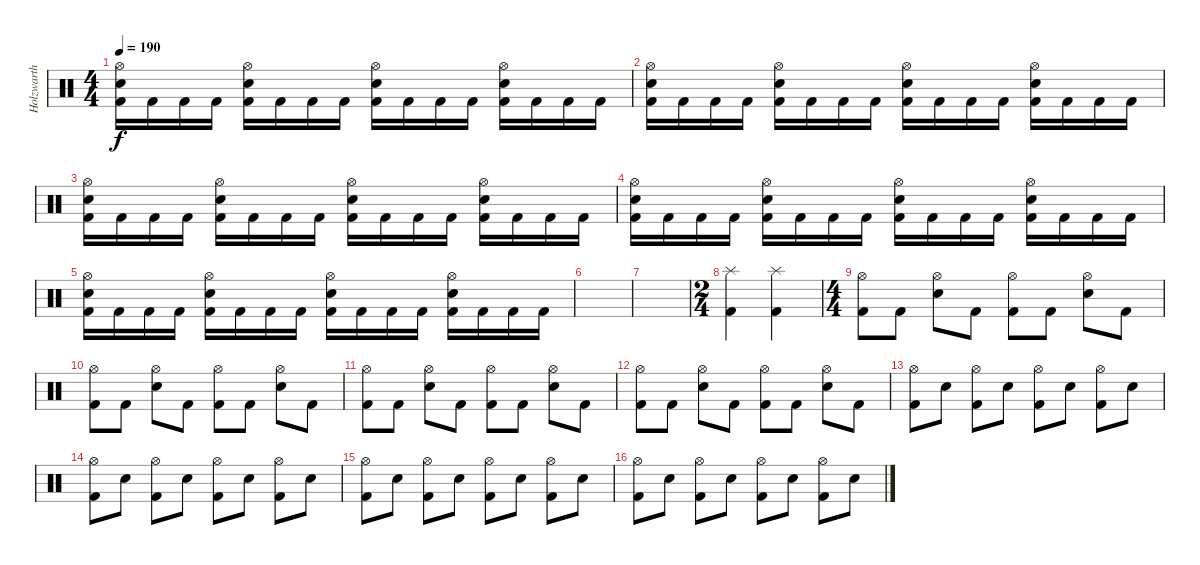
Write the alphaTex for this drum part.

\track ("Holzwarth" "Holzwarth") {instrument percussion}
\staff {score}
\articulation defaults
\ts (4 4)
\tempo 190
\clef neutral
\ks c
("Hi-Hat (open)" "Snare (hit) 2" "Kick (hit) 2").16{dy f} "Kick (hit) 2".16 "Kick (hit) 2".16 "Kick (hit) 2".16 ("Hi-Hat (open)" "Snare (hit) 2" "Kick (hit) 2").16 "Kick (hit) 2".16 "Kick (hit) 2".16 "Kick (hit) 2".16 ("Hi-Hat (open)" "Snare (hit) 2" "Kick (hit) 2").16 "Kick (hit) 2".16 "Kick (hit) 2".16 "Kick (hit) 2".16 ("Hi-Hat (open)" "Snare (hit) 2" "Kick (hit) 2").16 "Kick (hit) 2".16 "Kick (hit) 2".16 "Kick (hit) 2".16 |
("Hi-Hat (open)" "Snare (hit) 2" "Kick (hit) 2").16 "Kick (hit) 2".16 "Kick (hit) 2".16 "Kick (hit) 2".16 ("Hi-Hat (open)" "Snare (hit) 2" "Kick (hit) 2").16 "Kick (hit) 2".16 "Kick (hit) 2".16 "Kick (hit) 2".16 ("Hi-Hat (open)" "Snare (hit) 2" "Kick (hit) 2").16 "Kick (hit) 2".16 "Kick (hit) 2".16 "Kick (hit) 2".16 ("Hi-Hat (open)" "Snare (hit) 2" "Kick (hit) 2").16 "Kick (hit) 2".16 "Kick (hit) 2".16 "Kick (hit) 2".16 |
("Hi-Hat (open)" "Snare (hit) 2" "Kick (hit) 2").16 "Kick (hit) 2".16 "Kick (hit) 2".16 "Kick (hit) 2".16 ("Hi-Hat (open)" "Snare (hit) 2" "Kick (hit) 2").16 "Kick (hit) 2".16 "Kick (hit) 2".16 "Kick (hit) 2".16 ("Hi-Hat (open)" "Snare (hit) 2" "Kick (hit) 2").16 "Kick (hit) 2".16 "Kick (hit) 2".16 "Kick (hit) 2".16 ("Hi-Hat (open)" "Snare (hit) 2" "Kick (hit) 2").16 "Kick (hit) 2".16 "Kick (hit) 2".16 "Kick (hit) 2".16 |
("Hi-Hat (open)" "Snare (hit) 2" "Kick (hit) 2").16 "Kick (hit) 2".16 "Kick (hit) 2".16 "Kick (hit) 2".16 ("Hi-Hat (open)" "Snare (hit) 2" "Kick (hit) 2").16 "Kick (hit) 2".16 "Kick (hit) 2".16 "Kick (hit) 2".16 ("Hi-Hat (open)" "Snare (hit) 2" "Kick (hit) 2").16 "Kick (hit) 2".16 "Kick (hit) 2".16 "Kick (hit) 2".16 ("Hi-Hat (open)" "Snare (hit) 2" "Kick (hit) 2").16 "Kick (hit) 2".16 "Kick (hit) 2".16 "Kick (hit) 2".16 |
("Hi-Hat (open)" "Snare (hit) 2" "Kick (hit) 2").16 "Kick (hit) 2".16 "Kick (hit) 2".16 "Kick (hit) 2".16 ("Hi-Hat (open)" "Snare (hit) 2" "Kick (hit) 2").16 "Kick (hit) 2".16 "Kick (hit) 2".16 "Kick (hit) 2".16 ("Hi-Hat (open)" "Snare (hit) 2" "Kick (hit) 2").16 "Kick (hit) 2".16 "Kick (hit) 2".16 "Kick (hit) 2".16 ("Hi-Hat (open)" "Snare (hit) 2" "Kick (hit) 2").16 "Kick (hit) 2".16 "Kick (hit) 2".16 "Kick (hit) 2".16 |
|
|
\ts (2 4)
("Splash (hit)" "Kick (hit) 2").4 ("Splash (hit)" "Kick (hit) 2").4 |
\ts (4 4)
("Hi-Hat (open)" "Kick (hit) 2").8 "Kick (hit) 2".8 ("Hi-Hat (open)" "Snare (hit) 2").8 "Kick (hit) 2".8 ("Hi-Hat (open)" "Kick (hit) 2").8 "Kick (hit) 2".8 ("Hi-Hat (open)" "Snare (hit) 2").8 "Kick (hit) 2".8 |
("Hi-Hat (open)" "Kick (hit) 2").8 "Kick (hit) 2".8 ("Hi-Hat (open)" "Snare (hit) 2").8 "Kick (hit) 2".8 ("Hi-Hat (open)" "Kick (hit) 2").8 "Kick (hit) 2".8 ("Hi-Hat (open)" "Snare (hit) 2").8 "Kick (hit) 2".8 |
("Hi-Hat (open)" "Kick (hit) 2").8 "Kick (hit) 2".8 ("Hi-Hat (open)" "Snare (hit) 2").8 "Kick (hit) 2".8 ("Hi-Hat (open)" "Kick (hit) 2").8 "Kick (hit) 2".8 ("Hi-Hat (open)" "Snare (hit) 2").8 "Kick (hit) 2".8 |
("Hi-Hat (open)" "Kick (hit) 2").8 "Kick (hit) 2".8 ("Hi-Hat (open)" "Snare (hit) 2").8 "Kick (hit) 2".8 ("Hi-Hat (open)" "Kick (hit) 2").8 "Kick (hit) 2".8 ("Hi-Hat (open)" "Snare (hit) 2").8 "Kick (hit) 2".8 |
("Hi-Hat (open)" "Kick (hit) 2").8 "Snare (hit) 2".8 ("Hi-Hat (open)" "Kick (hit) 2").8 "Snare (hit) 2".8 ("Hi-Hat (open)" "Kick (hit) 2").8 "Snare (hit) 2".8 ("Hi-Hat (open)" "Kick (hit) 2").8 "Snare (hit) 2".8 |
("Hi-Hat (open)" "Kick (hit) 2").8 "Snare (hit) 2".8 ("Hi-Hat (open)" "Kick (hit) 2").8 "Snare (hit) 2".8 ("Hi-Hat (open)" "Kick (hit) 2").8 "Snare (hit) 2".8 ("Hi-Hat (open)" "Kick (hit) 2").8 "Snare (hit) 2".8 |
("Hi-Hat (open)" "Kick (hit) 2").8 "Snare (hit) 2".8 ("Hi-Hat (open)" "Kick (hit) 2").8 "Snare (hit) 2".8 ("Hi-Hat (open)" "Kick (hit) 2").8 "Snare (hit) 2".8 ("Hi-Hat (open)" "Kick (hit) 2").8 "Snare (hit) 2".8 |
("Hi-Hat (open)" "Kick (hit) 2").8 "Snare (hit) 2".8 ("Hi-Hat (open)" "Kick (hit) 2").8 "Snare (hit) 2".8 ("Hi-Hat (open)" "Kick (hit) 2").8 "Snare (hit) 2".8 ("Hi-Hat (open)" "Kick (hit) 2").8 "Snare (hit) 2".8
